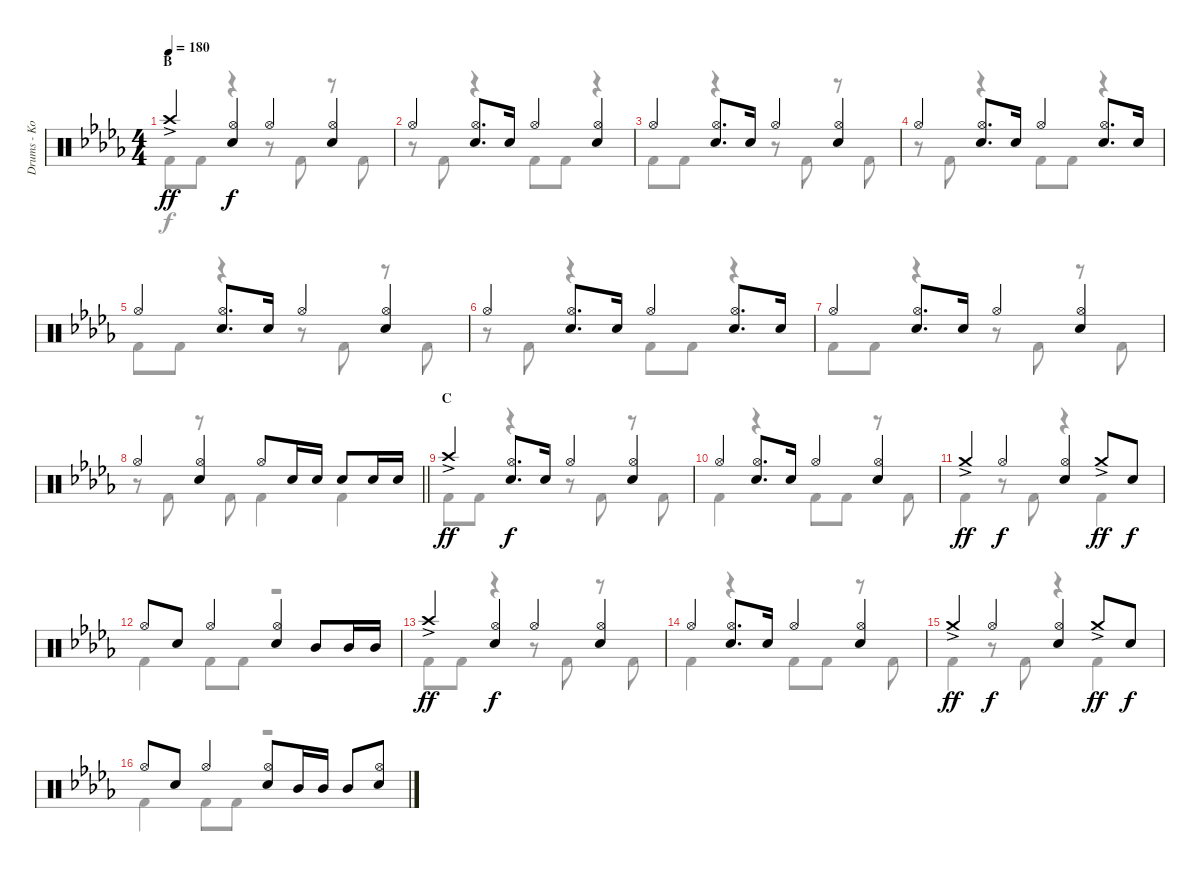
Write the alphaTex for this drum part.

\track ("Drums - Koji Hasegawa" "Drums - Ko") {instrument percussion}
\staff {score}
\articulation defaults
\voice
\ts (4 4)
\section ("" "B")
\tempo 180
\clef neutral
\ks db "Crash high (hit)"{ac}.4{dy ff}
("Hi-Hat (open)" "Snare (hit) 2").4{dy f} "Hi-Hat (open)".4 ("Hi-Hat (open)" "Snare (hit) 2").4 |
"Hi-Hat (open)".4 ("Hi-Hat (open)" "Snare (hit) 2").8{d} "Snare (hit) 2".16 "Hi-Hat (open)".4 ("Hi-Hat (open)" "Snare (hit) 2").4 |
"Hi-Hat (open)".4 ("Hi-Hat (open)" "Snare (hit) 2").8{d} "Snare (hit) 2".16 "Hi-Hat (open)".4 ("Hi-Hat (open)" "Snare (hit) 2").4 |
"Hi-Hat (open)".4 ("Hi-Hat (open)" "Snare (hit) 2").8{d} "Snare (hit) 2".16 "Hi-Hat (open)".4 ("Hi-Hat (open)" "Snare (hit) 2").8{d} "Snare (hit) 2".16 |
"Hi-Hat (open)".4 ("Hi-Hat (open)" "Snare (hit) 2").8{d} "Snare (hit) 2".16 "Hi-Hat (open)".4 ("Hi-Hat (open)" "Snare (hit) 2").4 |
"Hi-Hat (open)".4 ("Hi-Hat (open)" "Snare (hit) 2").8{d} "Snare (hit) 2".16 "Hi-Hat (open)".4 ("Hi-Hat (open)" "Snare (hit) 2").8{d} "Snare (hit) 2".16 |
"Hi-Hat (open)".4 ("Hi-Hat (open)" "Snare (hit) 2").8{d} "Snare (hit) 2".16 "Hi-Hat (open)".4 ("Hi-Hat (open)" "Snare (hit) 2").4 |
\barLineRight lightlight "Hi-Hat (open)".4
("Hi-Hat (open)" "Snare (hit) 2").4 "Hi-Hat (open)".8 "Snare (hit) 2".16 "Snare (hit) 2".16 "Snare (hit) 2".8 "Snare (hit) 2".16 "Snare (hit) 2".16 |
\section ("" "C")
"Crash high (hit)"{ac}.4{dy ff} ("Hi-Hat (open)" "Snare (hit) 2").8{d dy f} "Snare (hit) 2".16 "Hi-Hat (open)".4 ("Hi-Hat (open)" "Snare (hit) 2").4 |
"Hi-Hat (open)".4 ("Hi-Hat (open)" "Snare (hit) 2").8{d} "Snare (hit) 2".16 "Hi-Hat (open)".4 ("Hi-Hat (open)" "Snare (hit) 2").4 |
"Crash medium (hit)"{ac}.4{dy ff} "Hi-Hat (open)".4{dy f} ("Hi-Hat (open)" "Snare (hit) 2").4 "Crash medium (hit)"{ac}.8{dy ff} "Snare (hit) 2".8{dy f} |
"Hi-Hat (open)".8 "Snare (hit) 2".8 "Hi-Hat (open)".4 ("Hi-Hat (open)" "Snare (hit) 2").4 "Mid Tom (hit)".8 "Mid Tom (hit)".16 "Mid Tom (hit)".16 |
"Crash high (hit)"{ac}.4{dy ff} ("Hi-Hat (open)" "Snare (hit) 2").4{dy f} "Hi-Hat (open)".4 ("Hi-Hat (open)" "Snare (hit) 2").4 |
"Hi-Hat (open)".4 ("Hi-Hat (open)" "Snare (hit) 2").8{d} "Snare (hit) 2".16 "Hi-Hat (open)".4 ("Hi-Hat (open)" "Snare (hit) 2").4 |
"Crash medium (hit)"{ac}.4{dy ff} "Hi-Hat (open)".4{dy f} ("Hi-Hat (open)" "Snare (hit) 2").4 "Crash medium (hit)"{ac}.8{dy ff} "Snare (hit) 2".8{dy f} |
"Hi-Hat (open)".8 "Snare (hit) 2".8 "Hi-Hat (open)".4 ("Hi-Hat (open)" "Snare (hit) 2").8 "Mid Tom (hit)".16 "Mid Tom (hit)".16 "Mid Tom (hit)".8 ("Hi-Hat (open)" "Snare (hit) 2").8
\voice
\clef neutral
\ottava regular
\simile none
\ks db "Kick (hit) 2".8{dy f} "Kick (hit) 2".8
r.4 r.8 "Kick (hit) 2".8 r.8 "Kick (hit) 2".8 |
r.8 "Kick (hit) 2".8 r.4 "Kick (hit) 2".8 "Kick (hit) 2".8 r.4 |
"Kick (hit) 2".8 "Kick (hit) 2".8 r.4 r.8 "Kick (hit) 2".8 r.8 "Kick (hit) 2".8 |
r.8 "Kick (hit) 2".8 r.4 "Kick (hit) 2".8 "Kick (hit) 2".8 r.4 |
"Kick (hit) 2".8 "Kick (hit) 2".8 r.4 r.8 "Kick (hit) 2".8 r.8 "Kick (hit) 2".8 |
r.8 "Kick (hit) 2".8 r.4 "Kick (hit) 2".8 "Kick (hit) 2".8 r.4 |
"Kick (hit) 2".8 "Kick (hit) 2".8 r.4 r.8 "Kick (hit) 2".8 r.8 "Kick (hit) 2".8 |
\barLineRight lightlight
r.8 "Kick (hit) 2".8 r.8 "Kick (hit) 2".8 "Kick (hit) 2".4 "Kick (hit) 2".4 |
"Kick (hit) 2".8 "Kick (hit) 2".8 r.4 r.8 "Kick (hit) 2".8 r.8 "Kick (hit) 2".8 |
"Kick (hit) 2".4 r.4 "Kick (hit) 2".8 "Kick (hit) 2".8 r.8 "Kick (hit) 2".8 |
"Kick (hit) 2".4 r.8 "Kick (hit) 2".8 r.4 "Kick (hit) 2".4 |
"Kick (hit) 2".4 "Kick (hit) 2".8 "Kick (hit) 2".8 r.2 |
"Kick (hit) 2".8 "Kick (hit) 2".8 r.4 r.8 "Kick (hit) 2".8 r.8 "Kick (hit) 2".8 |
"Kick (hit) 2".4 r.4 "Kick (hit) 2".8 "Kick (hit) 2".8 r.8 "Kick (hit) 2".8 |
"Kick (hit) 2".4 r.8 "Kick (hit) 2".8 r.4 "Kick (hit) 2".4 |
"Kick (hit) 2".4 "Kick (hit) 2".8 "Kick (hit) 2".8 r.2
